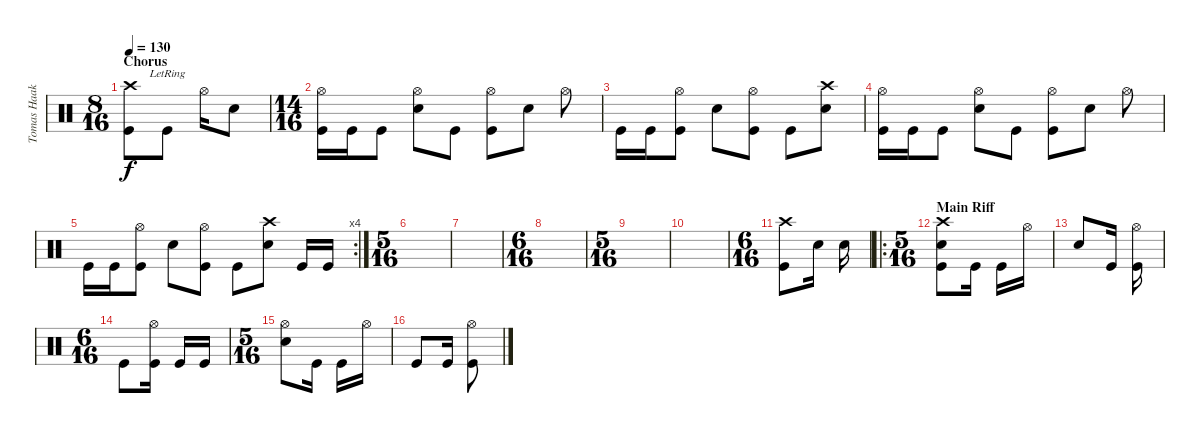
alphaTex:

\track ("Tomas Haake - Drums" "Tomas Haak") {instrument percussion}
\staff {score}
\articulation defaults
\ts (8 16)
\section ("" "Chorus")
\tempo 130
\clef neutral
\ks c
("Crash high (hit)" "Kick (hit)").8{dy f} "Kick (hit)"{lr}.8 "Hi-Hat (open)".16 "Electric Snare (hit)".8 |
\ts (14 16)
("Hi-Hat (open)" "Kick (hit)").16 "Kick (hit)".16 "Kick (hit)".8 ("Hi-Hat (open)" "Electric Snare (hit)").8 "Kick (hit)".8 ("Hi-Hat (open)" "Kick (hit)").8 "Electric Snare (hit)".8 "Hi-Hat (open)".8 |
"Kick (hit)".16 "Kick (hit)".16 ("Hi-Hat (open)" "Kick (hit)").8 "Electric Snare (hit)".8 ("Hi-Hat (open)" "Kick (hit)").8 "Kick (hit)".8 ("Crash high (hit)" "Electric Snare (hit)").8 |
("Hi-Hat (open)" "Kick (hit)").16 "Kick (hit)".16 "Kick (hit)".8 ("Hi-Hat (open)" "Electric Snare (hit)").8 "Kick (hit)".8 ("Hi-Hat (open)" "Kick (hit)").8 "Electric Snare (hit)".8 "Hi-Hat (open)".8 |
\rc 4 "Kick (hit)".16 "Kick (hit)".16
("Hi-Hat (open)" "Kick (hit)").8 "Electric Snare (hit)".8 ("Hi-Hat (open)" "Kick (hit)").8 "Kick (hit)".8 ("Crash high (hit)" "Electric Snare (hit)").8 "Kick (hit)".16 "Kick (hit)".16 |
\ts (5 16)
|
|
\ts (6 16)
|
\ts (5 16)
|
|
\ts (6 16)
("Crash high (hit)" "Kick (hit)").8 "Electric Snare (hit)".16 "Electric Snare (hit)".16 |
\ro
\ts (5 16)
\section ("" "Main Riff")
("Crash high (hit)" "Electric Snare (hit)" "Kick (hit)").8 "Kick (hit)".16 "Kick (hit)".16 "Hi-Hat (open)".16 |
"Electric Snare (hit)".8 "Kick (hit)".16 ("Hi-Hat (open)" "Kick (hit)").16 |
\ts (6 16)
"Kick (hit)".8 ("Hi-Hat (open)" "Kick (hit)").16 "Kick (hit)".16 "Kick (hit)".16 |
\ts (5 16)
("Hi-Hat (open)" "Electric Snare (hit)").8 "Kick (hit)".16 "Kick (hit)".16 "Hi-Hat (open)".16 |
"Kick (hit)".8 "Kick (hit)".16 ("Hi-Hat (open)" "Kick (hit)").8
